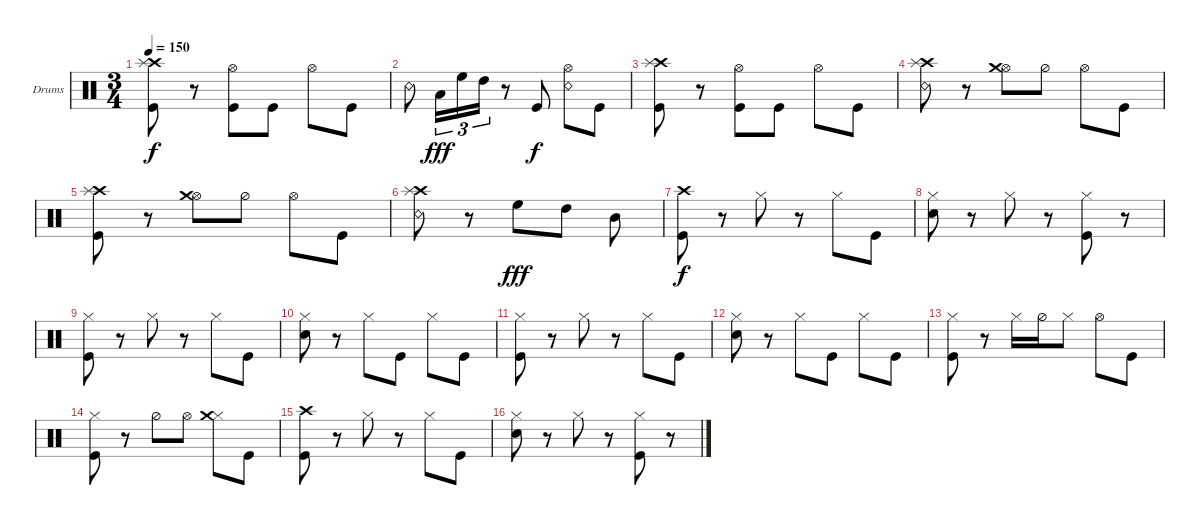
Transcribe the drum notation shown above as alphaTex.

\defaultSystemsLayout 4
\bracketExtendMode groupsimilarinstruments
\firstSystemTrackNameOrientation horizontal
\otherSystemsTrackNameOrientation horizontal
\track ("Scott" "Drums") {mute instrument percussion}
\staff {score}
\articulation defaults
\ts (3 4)
\tempo 150
\clef neutral
\scale
0.333333
\ks c
("Kick (hit)" "Crash high (hit)" "Splash (hit)").8{dy f} r.8 ("Kick (hit)" "Hi-Hat (open)").8 "Kick (hit)".8 "Hi-Hat (open)".8 "Kick (hit)".8 |
\scale
0.333333 "Snare (rim shot)".8 "Low Tom (hit)".16{tu (3 2) dy fff} "High Floor Tom (hit)".16{tu (3 2)} "High Tom (hit)".16{tu (3 2)} r.8 "Kick (hit)".8{dy f} ("Snare (rim shot)" "Hi-Hat (open)").8 "Kick (hit)".8 |
\scale
0.333333 ("Kick (hit)" "Crash high (hit)" "Splash (hit)").8 r.8 ("Kick (hit)" "Hi-Hat (open)").8 "Kick (hit)".8 "Hi-Hat (open)".8 "Kick (hit)".8 |
\scale
0.333333 ("Snare (rim shot)" "Crash high (hit)" "Splash (hit)").8 r.8 ("Hi-Hat (open)" "Crash medium (hit)").8 "Hi-Hat (half)".8 "Hi-Hat (open)".8 "Kick (hit)".8 |
\scale
0.333333 ("Kick (hit)" "Crash high (hit)" "Splash (hit)").8 r.8 ("Hi-Hat (open)" "Crash medium (hit)").8 "Hi-Hat (half)".8 "Hi-Hat (open)".8 "Kick (hit)".8 |
\scale
0.333333 ("Snare (rim shot)" "Crash high (hit)" "Splash (hit)").8 r.8 "High Floor Tom (hit)".8{dy fff} "High Tom (hit)".8 "Mid Tom (hit)".8 |
\scale
0.333333 ("Kick (hit)" "Crash high (hit)").8{dy f} r.8 "Hi-Hat (closed)".8 r.8 "Hi-Hat (closed)".8 "Kick (hit)".8 |
\scale
0.333333 ("Hi-Hat (closed)" "Snare (hit) 2").8 r.8 "Hi-Hat (closed)".8 r.8 ("Hi-Hat (closed)" "Kick (hit)").8 r.8 |
\scale
0.333333 ("Hi-Hat (closed)" "Kick (hit)").8 r.8 "Hi-Hat (closed)".8 r.8 "Hi-Hat (closed)".8 "Kick (hit)".8 |
\scale
0.333333 ("Snare (hit) 2" "Hi-Hat (closed)").8 r.8 "Hi-Hat (closed)".8 "Kick (hit)".8 "Hi-Hat (closed)".8 "Kick (hit)".8 |
\scale
0.333333 ("Hi-Hat (closed)" "Kick (hit)").8 r.8 "Hi-Hat (closed)".8 r.8 "Hi-Hat (closed)".8 "Kick (hit)".8 |
\scale
0.333333 ("Snare (hit) 2" "Hi-Hat (closed)").8 r.8 "Hi-Hat (closed)".8 "Kick (hit)".8 "Hi-Hat (closed)".8 "Kick (hit)".8 |
\scale
0.333333 ("Hi-Hat (closed)" "Kick (hit)").8 r.8 "Hi-Hat (closed)".16 "Hi-Hat (half)".16 "Hi-Hat (closed)".8 "Hi-Hat (open)".8 "Kick (hit)".8 |
\scale
0.333333 ("Kick (hit)" "Hi-Hat (closed)").8 r.8 "Hi-Hat (half)".8 "Hi-Hat (open)".8 ("Hi-Hat (closed)" "Crash medium (hit)").8 "Kick (hit)".8 |
\scale
0.333333 ("Kick (hit)" "Crash high (hit)").8 r.8 "Hi-Hat (closed)".8 r.8 "Hi-Hat (closed)".8 "Kick (hit)".8 |
\scale
0.333333 ("Hi-Hat (closed)" "Snare (hit) 2").8 r.8 "Hi-Hat (closed)".8 r.8 ("Hi-Hat (closed)" "Kick (hit)").8 r.8
